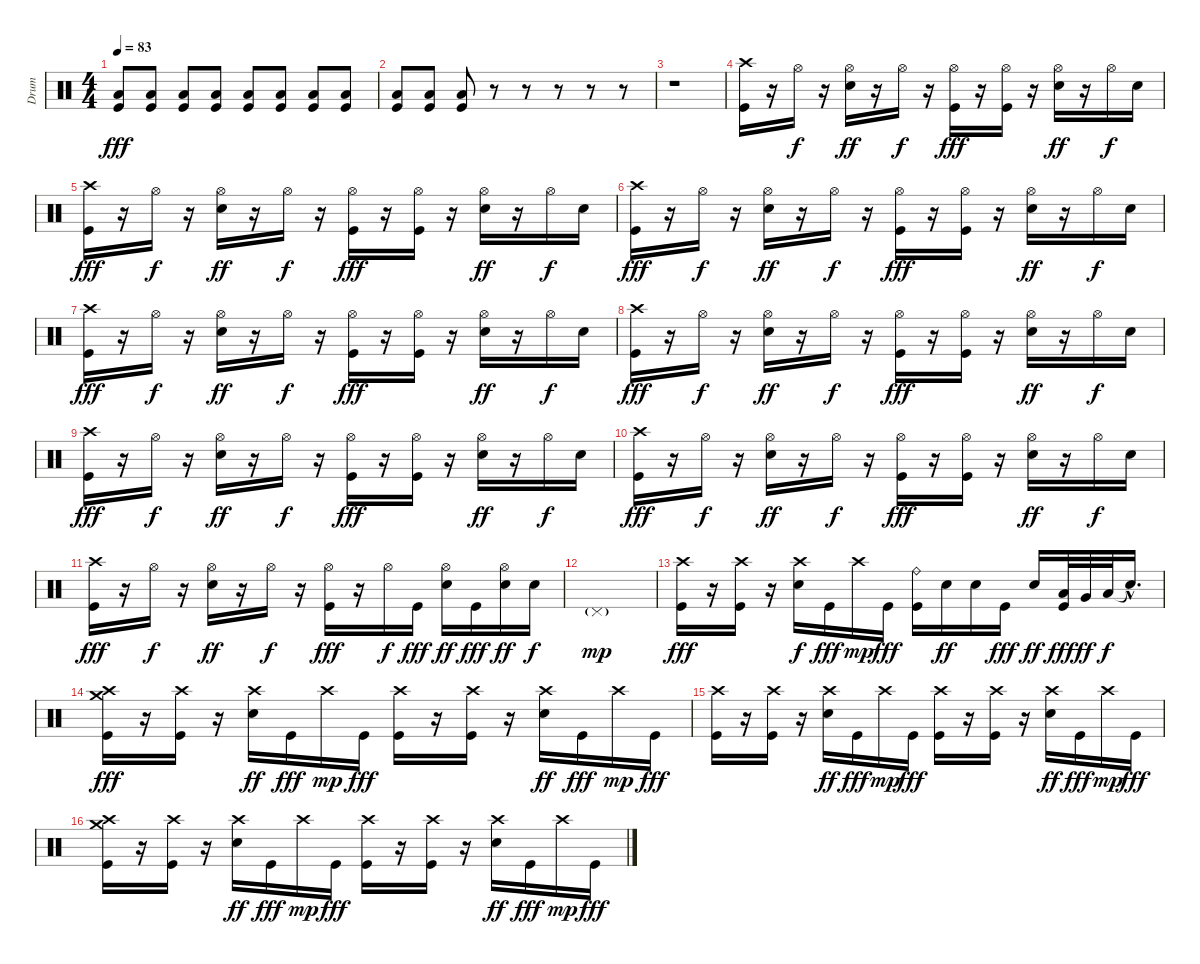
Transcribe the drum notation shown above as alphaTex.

\track ("Drum" "Drum") {instrument percussion}
\staff {score}
\articulation defaults
\ts (4 4)
\tempo 83
\clef neutral
\ks c
("Low Floor Tom (hit)" "Kick (hit)").8{dy fff volume 16} ("Low Floor Tom (hit)" "Kick (hit)").8{volume 12} ("Low Floor Tom (hit)" "Kick (hit)").8{volume 16} ("Low Floor Tom (hit)" "Kick (hit)").8 ("Low Floor Tom (hit)" "Kick (hit)").8 ("Low Floor Tom (hit)" "Kick (hit)").8 ("Low Floor Tom (hit)" "Kick (hit)").8 ("Low Floor Tom (hit)" "Kick (hit)").8 |
("Low Floor Tom (hit)" "Kick (hit)").8 ("Low Floor Tom (hit)" "Kick (hit)").8 ("Low Floor Tom (hit)" "Kick (hit)").8 r.8 r.8 r.8 r.8 r.8 |
r.1 |
("Crash high (hit)" "Kick (hit)").16 r.16 "Hi-Hat (open)".16{dy f} r.16 ("Hi-Hat (open)" "Snare (hit) 2").16{dy ff} r.16 "Hi-Hat (open)".16{dy f} r.16 ("Hi-Hat (open)" "Kick (hit)").16{dy fff} r.16 ("Hi-Hat (open)" "Kick (hit)").16 r.16 ("Hi-Hat (open)" "Snare (hit) 2").16{dy ff} r.16 "Hi-Hat (open)".16{dy f} "Snare (hit) 2".16 |
("Crash high (hit)" "Kick (hit)").16{dy fff} r.16 "Hi-Hat (open)".16{dy f} r.16 ("Hi-Hat (open)" "Snare (hit) 2").16{dy ff} r.16 "Hi-Hat (open)".16{dy f} r.16 ("Hi-Hat (open)" "Kick (hit)").16{dy fff} r.16 ("Hi-Hat (open)" "Kick (hit)").16 r.16 ("Hi-Hat (open)" "Snare (hit) 2").16{dy ff} r.16 "Hi-Hat (open)".16{dy f} "Snare (hit) 2".16 |
("Crash high (hit)" "Kick (hit)").16{dy fff} r.16 "Hi-Hat (open)".16{dy f} r.16 ("Hi-Hat (open)" "Snare (hit) 2").16{dy ff} r.16 "Hi-Hat (open)".16{dy f} r.16 ("Hi-Hat (open)" "Kick (hit)").16{dy fff} r.16 ("Hi-Hat (open)" "Kick (hit)").16 r.16 ("Hi-Hat (open)" "Snare (hit) 2").16{dy ff} r.16 "Hi-Hat (open)".16{dy f} "Snare (hit) 2".16 |
("Crash high (hit)" "Kick (hit)").16{dy fff} r.16 "Hi-Hat (open)".16{dy f} r.16 ("Hi-Hat (open)" "Snare (hit) 2").16{dy ff} r.16 "Hi-Hat (open)".16{dy f} r.16 ("Hi-Hat (open)" "Kick (hit)").16{dy fff} r.16 ("Hi-Hat (open)" "Kick (hit)").16 r.16 ("Hi-Hat (open)" "Snare (hit) 2").16{dy ff} r.16 "Hi-Hat (open)".16{dy f} "Snare (hit) 2".16 |
("Crash high (hit)" "Kick (hit)").16{dy fff} r.16 "Hi-Hat (open)".16{dy f} r.16 ("Hi-Hat (open)" "Snare (hit) 2").16{dy ff} r.16 "Hi-Hat (open)".16{dy f} r.16 ("Hi-Hat (open)" "Kick (hit)").16{dy fff} r.16 ("Hi-Hat (open)" "Kick (hit)").16 r.16 ("Hi-Hat (open)" "Snare (hit) 2").16{dy ff} r.16 "Hi-Hat (open)".16{dy f} "Snare (hit) 2".16 |
("Crash high (hit)" "Kick (hit)").16{dy fff} r.16 "Hi-Hat (open)".16{dy f} r.16 ("Hi-Hat (open)" "Snare (hit) 2").16{dy ff} r.16 "Hi-Hat (open)".16{dy f} r.16 ("Hi-Hat (open)" "Kick (hit)").16{dy fff} r.16 ("Hi-Hat (open)" "Kick (hit)").16 r.16 ("Hi-Hat (open)" "Snare (hit) 2").16{dy ff} r.16 "Hi-Hat (open)".16{dy f} "Snare (hit) 2".16 |
("Crash high (hit)" "Kick (hit)").16{dy fff} r.16 "Hi-Hat (open)".16{dy f} r.16 ("Hi-Hat (open)" "Snare (hit) 2").16{dy ff} r.16 "Hi-Hat (open)".16{dy f} r.16 ("Hi-Hat (open)" "Kick (hit)").16{dy fff} r.16 ("Hi-Hat (open)" "Kick (hit)").16 r.16 ("Hi-Hat (open)" "Snare (hit) 2").16{dy ff} r.16 "Hi-Hat (open)".16{dy f} "Snare (hit) 2".16 |
("Crash high (hit)" "Kick (hit)").16{dy fff} r.16 "Hi-Hat (open)".16{dy f} r.16 ("Hi-Hat (open)" "Snare (hit) 2").16{dy ff} r.16 "Hi-Hat (open)".16{dy f} r.16 ("Hi-Hat (open)" "Kick (hit)").16{dy fff} r.16 "Hi-Hat (open)".16{dy f} "Kick (hit)".16{dy fff} ("Hi-Hat (open)" "Snare (hit) 2").16{dy ff} "Kick (hit)".16{dy fff} ("Hi-Hat (open)" "Snare (hit) 2").16{dy ff} "Snare (hit) 2".16{dy f} |
"Pedal Hi-Hat (hit)"{g}.1{dy mp} |
("Crash high (hit)" "Kick (hit)").16{dy fff} r.16 ("Crash high (hit)" "Kick (hit)").16 r.16 ("Crash high (hit)" "Snare (hit) 2").16{dy f} "Kick (hit)".16{dy fff} "Crash high (hit)".16{dy mp} "Kick (hit)".16{dy fff} ("Ride (bell)" "Kick (hit)").16 "Snare (hit) 2".16{dy ff} "Snare (hit) 2".16 "Kick (hit)".16{dy fff} "Snare (hit) 2".16{dy ff} ("Low Tom (hit)" "Kick (hit)").32{dy fff} "Very Low Tom (hit)".32{dy ff} "Low Floor Tom (hit)".32{dy f} "Snare (hit)"{hac t}.16{d} |
("Crash medium (hit)" "Crash high (hit)" "Kick (hit)").16{dy fff} r.16 ("Crash high (hit)" "Kick (hit)").16 r.16 ("Crash high (hit)" "Snare (hit) 2").16{dy ff} "Kick (hit)".16{dy fff} "Crash high (hit)".16{dy mp} "Kick (hit)".16{dy fff} ("Crash high (hit)" "Kick (hit)").16 r.16 ("Crash high (hit)" "Kick (hit)").16 r.16 ("Crash high (hit)" "Snare (hit) 2").16{dy ff} "Kick (hit)".16{dy fff} "Crash high (hit)".16{dy mp} "Kick (hit)".16{dy fff} |
("Crash high (hit)" "Kick (hit)").16 r.16 ("Crash high (hit)" "Kick (hit)").16 r.16 ("Crash high (hit)" "Snare (hit) 2").16{dy ff} "Kick (hit)".16{dy fff} "Crash high (hit)".16{dy mp} "Kick (hit)".16{dy fff} ("Crash high (hit)" "Kick (hit)").16 r.16 ("Crash high (hit)" "Kick (hit)").16 r.16 ("Crash high (hit)" "Snare (hit) 2").16{dy ff} "Kick (hit)".16{dy fff} "Crash high (hit)".16{dy mp} "Kick (hit)".16{dy fff} |
("Crash medium (hit)" "Crash high (hit)" "Kick (hit)").16 r.16 ("Crash high (hit)" "Kick (hit)").16 r.16 ("Crash high (hit)" "Snare (hit) 2").16{dy ff} "Kick (hit)".16{dy fff} "Crash high (hit)".16{dy mp} "Kick (hit)".16{dy fff} ("Crash high (hit)" "Kick (hit)").16 r.16 ("Crash high (hit)" "Kick (hit)").16 r.16 ("Crash high (hit)" "Snare (hit) 2").16{dy ff} "Kick (hit)".16{dy fff} "Crash high (hit)".16{dy mp} "Kick (hit)".16{dy fff}
